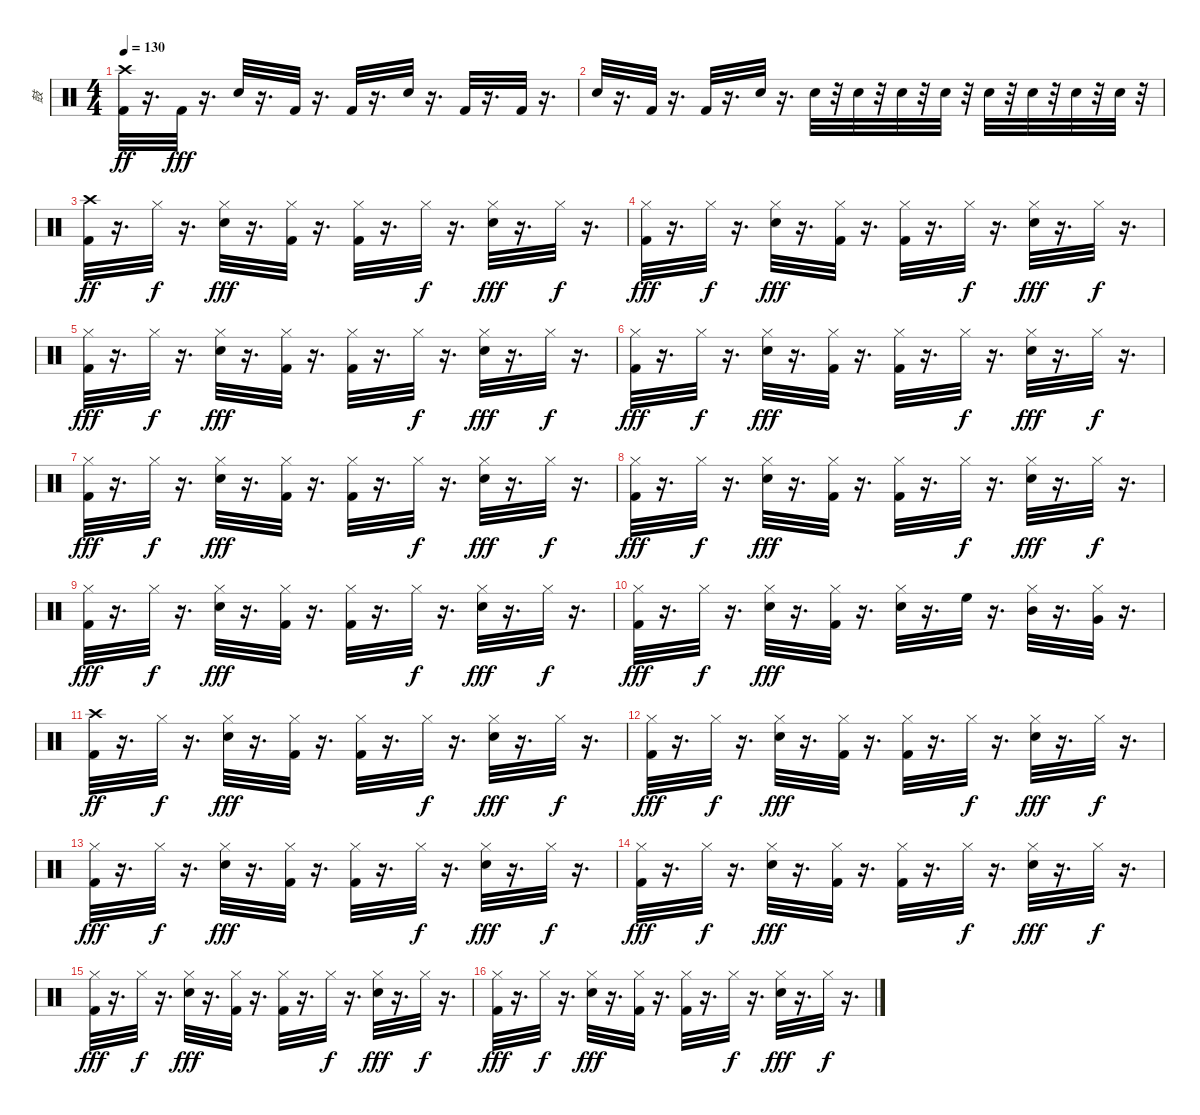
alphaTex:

\track ("鼓" "鼓") {instrument percussion}
\staff {score}
\articulation defaults
\ts (4 4)
\tempo 130
\clef neutral
\ks c
("Kick (hit) 2" "Crash high (hit)").32{dy ff} r.16{d} "Kick (hit) 2".32{dy fff} r.16{d} "Electric Snare (hit)".32 r.16{d} "Kick (hit) 2".32 r.16{d} "Kick (hit) 2".32 r.16{d} "Electric Snare (hit)".32 r.16{d} "Kick (hit) 2".32 r.16{d} "Kick (hit) 2".32 r.16{d} |
"Electric Snare (hit)".32 r.16{d} "Kick (hit) 2".32 r.16{d} "Kick (hit) 2".32 r.16{d} "Electric Snare (hit)".32 r.16{d} "Electric Snare (hit)".32 r.32 "Snare (hit) 2".32 r.32 "Electric Snare (hit)".32 r.32 "Snare (hit) 2".32 r.32 "Electric Snare (hit)".32 r.32 "Snare (hit) 2".32 r.32 "Electric Snare (hit)".32 r.32 "Snare (hit) 2".32 r.32 |
("Kick (hit) 2" "Crash high (hit)").32{dy ff} r.16{d} "Hi-Hat (closed)".32{dy f} r.16{d} ("Hi-Hat (closed)" "Electric Snare (hit)").32{dy fff} r.16{d} ("Kick (hit) 2" "Hi-Hat (closed)").32 r.16{d} ("Kick (hit) 2" "Hi-Hat (closed)").32 r.16{d} "Hi-Hat (closed)".32{dy f} r.16{d} ("Hi-Hat (closed)" "Electric Snare (hit)").32{dy fff} r.16{d} "Hi-Hat (closed)".32{dy f} r.16{d} |
("Kick (hit) 2" "Hi-Hat (closed)").32{dy fff} r.16{d} "Hi-Hat (closed)".32{dy f} r.16{d} ("Hi-Hat (closed)" "Electric Snare (hit)").32{dy fff} r.16{d} ("Kick (hit) 2" "Hi-Hat (closed)").32 r.16{d} ("Kick (hit) 2" "Hi-Hat (closed)").32 r.16{d} "Hi-Hat (closed)".32{dy f} r.16{d} ("Hi-Hat (closed)" "Electric Snare (hit)").32{dy fff} r.16{d} "Hi-Hat (closed)".32{dy f} r.16{d} |
("Kick (hit) 2" "Hi-Hat (closed)").32{dy fff} r.16{d} "Hi-Hat (closed)".32{dy f} r.16{d} ("Hi-Hat (closed)" "Electric Snare (hit)").32{dy fff} r.16{d} ("Kick (hit) 2" "Hi-Hat (closed)").32 r.16{d} ("Kick (hit) 2" "Hi-Hat (closed)").32 r.16{d} "Hi-Hat (closed)".32{dy f} r.16{d} ("Hi-Hat (closed)" "Electric Snare (hit)").32{dy fff} r.16{d} "Hi-Hat (closed)".32{dy f} r.16{d} |
("Kick (hit) 2" "Hi-Hat (closed)").32{dy fff} r.16{d} "Hi-Hat (closed)".32{dy f} r.16{d} ("Hi-Hat (closed)" "Electric Snare (hit)").32{dy fff} r.16{d} ("Kick (hit) 2" "Hi-Hat (closed)").32 r.16{d} ("Kick (hit) 2" "Hi-Hat (closed)").32 r.16{d} "Hi-Hat (closed)".32{dy f} r.16{d} ("Hi-Hat (closed)" "Electric Snare (hit)").32{dy fff} r.16{d} "Hi-Hat (closed)".32{dy f} r.16{d} |
("Kick (hit) 2" "Hi-Hat (closed)").32{dy fff} r.16{d} "Hi-Hat (closed)".32{dy f} r.16{d} ("Hi-Hat (closed)" "Electric Snare (hit)").32{dy fff} r.16{d} ("Kick (hit) 2" "Hi-Hat (closed)").32 r.16{d} ("Kick (hit) 2" "Hi-Hat (closed)").32 r.16{d} "Hi-Hat (closed)".32{dy f} r.16{d} ("Hi-Hat (closed)" "Electric Snare (hit)").32{dy fff} r.16{d} "Hi-Hat (closed)".32{dy f} r.16{d} |
("Kick (hit) 2" "Hi-Hat (closed)").32{dy fff} r.16{d} "Hi-Hat (closed)".32{dy f} r.16{d} ("Hi-Hat (closed)" "Electric Snare (hit)").32{dy fff} r.16{d} ("Kick (hit) 2" "Hi-Hat (closed)").32 r.16{d} ("Kick (hit) 2" "Hi-Hat (closed)").32 r.16{d} "Hi-Hat (closed)".32{dy f} r.16{d} ("Hi-Hat (closed)" "Electric Snare (hit)").32{dy fff} r.16{d} "Hi-Hat (closed)".32{dy f} r.16{d} |
("Kick (hit) 2" "Hi-Hat (closed)").32{dy fff} r.16{d} "Hi-Hat (closed)".32{dy f} r.16{d} ("Hi-Hat (closed)" "Electric Snare (hit)").32{dy fff} r.16{d} ("Kick (hit) 2" "Hi-Hat (closed)").32 r.16{d} ("Kick (hit) 2" "Hi-Hat (closed)").32 r.16{d} "Hi-Hat (closed)".32{dy f} r.16{d} ("Hi-Hat (closed)" "Electric Snare (hit)").32{dy fff} r.16{d} "Hi-Hat (closed)".32{dy f} r.16{d} |
("Kick (hit) 2" "Hi-Hat (closed)").32{dy fff} r.16{d} "Hi-Hat (closed)".32{dy f} r.16{d} ("Hi-Hat (closed)" "Electric Snare (hit)").32{dy fff} r.16{d} ("Kick (hit) 2" "Hi-Hat (closed)").32 r.16{d} ("Electric Snare (hit)" "Hi-Hat (closed)").32 r.16{d} "High Floor Tom (hit)".32 r.16{d} ("Hi-Hat (closed)" "Mid Tom (hit)").32 r.16{d} ("Very Low Tom (hit)" "Hi-Hat (closed)").32 r.16{d} |
("Kick (hit) 2" "Crash high (hit)").32{dy ff} r.16{d} "Hi-Hat (closed)".32{dy f} r.16{d} ("Hi-Hat (closed)" "Electric Snare (hit)").32{dy fff} r.16{d} ("Kick (hit) 2" "Hi-Hat (closed)").32 r.16{d} ("Kick (hit) 2" "Hi-Hat (closed)").32 r.16{d} "Hi-Hat (closed)".32{dy f} r.16{d} ("Hi-Hat (closed)" "Electric Snare (hit)").32{dy fff} r.16{d} "Hi-Hat (closed)".32{dy f} r.16{d} |
("Kick (hit) 2" "Hi-Hat (closed)").32{dy fff} r.16{d} "Hi-Hat (closed)".32{dy f} r.16{d} ("Hi-Hat (closed)" "Electric Snare (hit)").32{dy fff} r.16{d} ("Kick (hit) 2" "Hi-Hat (closed)").32 r.16{d} ("Kick (hit) 2" "Hi-Hat (closed)").32 r.16{d} "Hi-Hat (closed)".32{dy f} r.16{d} ("Hi-Hat (closed)" "Electric Snare (hit)").32{dy fff} r.16{d} "Hi-Hat (closed)".32{dy f} r.16{d} |
("Hi-Hat (closed)" "Kick (hit) 2").32{dy fff} r.16{d} "Hi-Hat (closed)".32{dy f} r.16{d} ("Hi-Hat (closed)" "Electric Snare (hit)").32{dy fff} r.16{d} ("Kick (hit) 2" "Hi-Hat (closed)").32 r.16{d} ("Kick (hit) 2" "Hi-Hat (closed)").32 r.16{d} "Hi-Hat (closed)".32{dy f} r.16{d} ("Hi-Hat (closed)" "Electric Snare (hit)").32{dy fff} r.16{d} "Hi-Hat (closed)".32{dy f} r.16{d} |
("Kick (hit) 2" "Hi-Hat (closed)").32{dy fff} r.16{d} "Hi-Hat (closed)".32{dy f} r.16{d} ("Hi-Hat (closed)" "Electric Snare (hit)").32{dy fff} r.16{d} ("Kick (hit) 2" "Hi-Hat (closed)").32 r.16{d} ("Kick (hit) 2" "Hi-Hat (closed)").32 r.16{d} "Hi-Hat (closed)".32{dy f} r.16{d} ("Hi-Hat (closed)" "Electric Snare (hit)").32{dy fff} r.16{d} "Hi-Hat (closed)".32{dy f} r.16{d} |
("Kick (hit) 2" "Hi-Hat (closed)").32{dy fff} r.16{d} "Hi-Hat (closed)".32{dy f} r.16{d} ("Hi-Hat (closed)" "Electric Snare (hit)").32{dy fff} r.16{d} ("Kick (hit) 2" "Hi-Hat (closed)").32 r.16{d} ("Kick (hit) 2" "Hi-Hat (closed)").32 r.16{d} "Hi-Hat (closed)".32{dy f} r.16{d} ("Hi-Hat (closed)" "Electric Snare (hit)").32{dy fff} r.16{d} "Hi-Hat (closed)".32{dy f} r.16{d} |
("Kick (hit) 2" "Hi-Hat (closed)").32{dy fff} r.16{d} "Hi-Hat (closed)".32{dy f} r.16{d} ("Hi-Hat (closed)" "Electric Snare (hit)").32{dy fff} r.16{d} ("Kick (hit) 2" "Hi-Hat (closed)").32 r.16{d} ("Kick (hit) 2" "Hi-Hat (closed)").32 r.16{d} "Hi-Hat (closed)".32{dy f} r.16{d} ("Hi-Hat (closed)" "Electric Snare (hit)").32{dy fff} r.16{d} "Hi-Hat (closed)".32{dy f} r.16{d}
